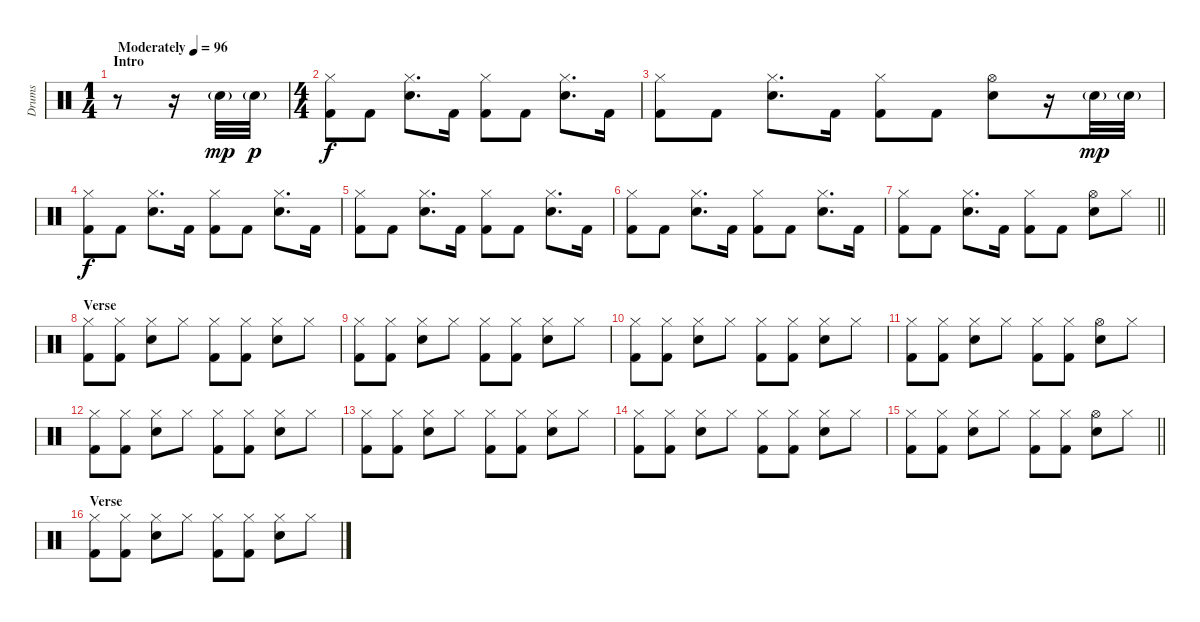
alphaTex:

\track ("Drums" "Drums") {instrument percussion}
\staff {score}
\articulation defaults
\ts (1 4)
\section ("" "Intro")
\tempo (96 "Moderately")
\clef neutral
\ks aminor
r.8{dy mp} r.16 "Snare (hit) 2"{g}.32 "Snare (hit) 2"{g}.32{dy p} |
\ts (4 4)
("Hi-Hat (closed)" "Kick (hit) 2").8{dy f} "Kick (hit) 2".8 ("Hi-Hat (closed)" "Snare (hit) 2").8{d} "Kick (hit) 2".16 ("Hi-Hat (closed)" "Kick (hit) 2").8 "Kick (hit) 2".8 ("Hi-Hat (closed)" "Snare (hit) 2").8{d} "Kick (hit) 2".16 |
("Hi-Hat (closed)" "Kick (hit) 2").8 "Kick (hit) 2".8 ("Hi-Hat (closed)" "Snare (hit) 2").8{d} "Kick (hit) 2".16 ("Hi-Hat (closed)" "Kick (hit) 2").8 "Kick (hit) 2".8 ("Hi-Hat (open)" "Snare (hit) 2").8 r.16 "Snare (hit) 2"{g}.32{dy mp} "Snare (hit) 2"{g}.32 |
("Hi-Hat (closed)" "Kick (hit) 2").8{dy f} "Kick (hit) 2".8 ("Hi-Hat (closed)" "Snare (hit) 2").8{d} "Kick (hit) 2".16 ("Hi-Hat (closed)" "Kick (hit) 2").8 "Kick (hit) 2".8 ("Hi-Hat (closed)" "Snare (hit) 2").8{d} "Kick (hit) 2".16 |
("Hi-Hat (closed)" "Kick (hit) 2").8 "Kick (hit) 2".8 ("Hi-Hat (closed)" "Snare (hit) 2").8{d} "Kick (hit) 2".16 ("Hi-Hat (closed)" "Kick (hit) 2").8 "Kick (hit) 2".8 ("Hi-Hat (closed)" "Snare (hit) 2").8{d} "Kick (hit) 2".16 |
("Hi-Hat (closed)" "Kick (hit) 2").8 "Kick (hit) 2".8 ("Hi-Hat (closed)" "Snare (hit) 2").8{d} "Kick (hit) 2".16 ("Hi-Hat (closed)" "Kick (hit) 2").8 "Kick (hit) 2".8 ("Hi-Hat (closed)" "Snare (hit) 2").8{d} "Kick (hit) 2".16 |
\barLineRight lightlight
("Hi-Hat (closed)" "Kick (hit) 2").8 "Kick (hit) 2".8 ("Hi-Hat (closed)" "Snare (hit) 2").8{d} "Kick (hit) 2".16 ("Hi-Hat (closed)" "Kick (hit) 2").8 "Kick (hit) 2".8 ("Hi-Hat (open)" "Snare (hit) 2").8 "Hi-Hat (closed)".8 |
\section ("" "Verse")
("Hi-Hat (closed)" "Kick (hit) 2").8 ("Hi-Hat (closed)" "Kick (hit) 2").8 ("Hi-Hat (closed)" "Snare (hit) 2").8 "Hi-Hat (closed)".8 ("Hi-Hat (closed)" "Kick (hit) 2").8 ("Hi-Hat (closed)" "Kick (hit) 2").8 ("Hi-Hat (closed)" "Snare (hit) 2").8 "Hi-Hat (closed)".8 |
("Hi-Hat (closed)" "Kick (hit) 2").8 ("Hi-Hat (closed)" "Kick (hit) 2").8 ("Hi-Hat (closed)" "Snare (hit) 2").8 "Hi-Hat (closed)".8 ("Hi-Hat (closed)" "Kick (hit) 2").8 ("Hi-Hat (closed)" "Kick (hit) 2").8 ("Hi-Hat (closed)" "Snare (hit) 2").8 "Hi-Hat (closed)".8 |
("Hi-Hat (closed)" "Kick (hit) 2").8 ("Hi-Hat (closed)" "Kick (hit) 2").8 ("Hi-Hat (closed)" "Snare (hit) 2").8 "Hi-Hat (closed)".8 ("Hi-Hat (closed)" "Kick (hit) 2").8 ("Hi-Hat (closed)" "Kick (hit) 2").8 ("Hi-Hat (closed)" "Snare (hit) 2").8 "Hi-Hat (closed)".8 |
("Hi-Hat (closed)" "Kick (hit) 2").8 ("Hi-Hat (closed)" "Kick (hit) 2").8 ("Hi-Hat (closed)" "Snare (hit) 2").8 "Hi-Hat (closed)".8 ("Hi-Hat (closed)" "Kick (hit) 2").8 ("Hi-Hat (closed)" "Kick (hit) 2").8 ("Hi-Hat (open)" "Snare (hit) 2").8 "Hi-Hat (closed)".8 |
("Hi-Hat (closed)" "Kick (hit) 2").8 ("Hi-Hat (closed)" "Kick (hit) 2").8 ("Hi-Hat (closed)" "Snare (hit) 2").8 "Hi-Hat (closed)".8 ("Hi-Hat (closed)" "Kick (hit) 2").8 ("Hi-Hat (closed)" "Kick (hit) 2").8 ("Hi-Hat (closed)" "Snare (hit) 2").8 "Hi-Hat (closed)".8 |
("Hi-Hat (closed)" "Kick (hit) 2").8 ("Hi-Hat (closed)" "Kick (hit) 2").8 ("Hi-Hat (closed)" "Snare (hit) 2").8 "Hi-Hat (closed)".8 ("Hi-Hat (closed)" "Kick (hit) 2").8 ("Hi-Hat (closed)" "Kick (hit) 2").8 ("Hi-Hat (closed)" "Snare (hit) 2").8 "Hi-Hat (closed)".8 |
("Hi-Hat (closed)" "Kick (hit) 2").8 ("Hi-Hat (closed)" "Kick (hit) 2").8 ("Hi-Hat (closed)" "Snare (hit) 2").8 "Hi-Hat (closed)".8 ("Hi-Hat (closed)" "Kick (hit) 2").8 ("Hi-Hat (closed)" "Kick (hit) 2").8 ("Hi-Hat (closed)" "Snare (hit) 2").8 "Hi-Hat (closed)".8 |
\barLineRight lightlight
("Hi-Hat (closed)" "Kick (hit) 2").8 ("Hi-Hat (closed)" "Kick (hit) 2").8 ("Hi-Hat (closed)" "Snare (hit) 2").8 "Hi-Hat (closed)".8 ("Hi-Hat (closed)" "Kick (hit) 2").8 ("Hi-Hat (closed)" "Kick (hit) 2").8 ("Hi-Hat (open)" "Snare (hit) 2").8 "Hi-Hat (closed)".8 |
\section ("" "Verse")
("Hi-Hat (closed)" "Kick (hit) 2").8 ("Hi-Hat (closed)" "Kick (hit) 2").8 ("Hi-Hat (closed)" "Snare (hit) 2").8 "Hi-Hat (closed)".8 ("Hi-Hat (closed)" "Kick (hit) 2").8 ("Hi-Hat (closed)" "Kick (hit) 2").8 ("Hi-Hat (closed)" "Snare (hit) 2").8 "Hi-Hat (closed)".8
